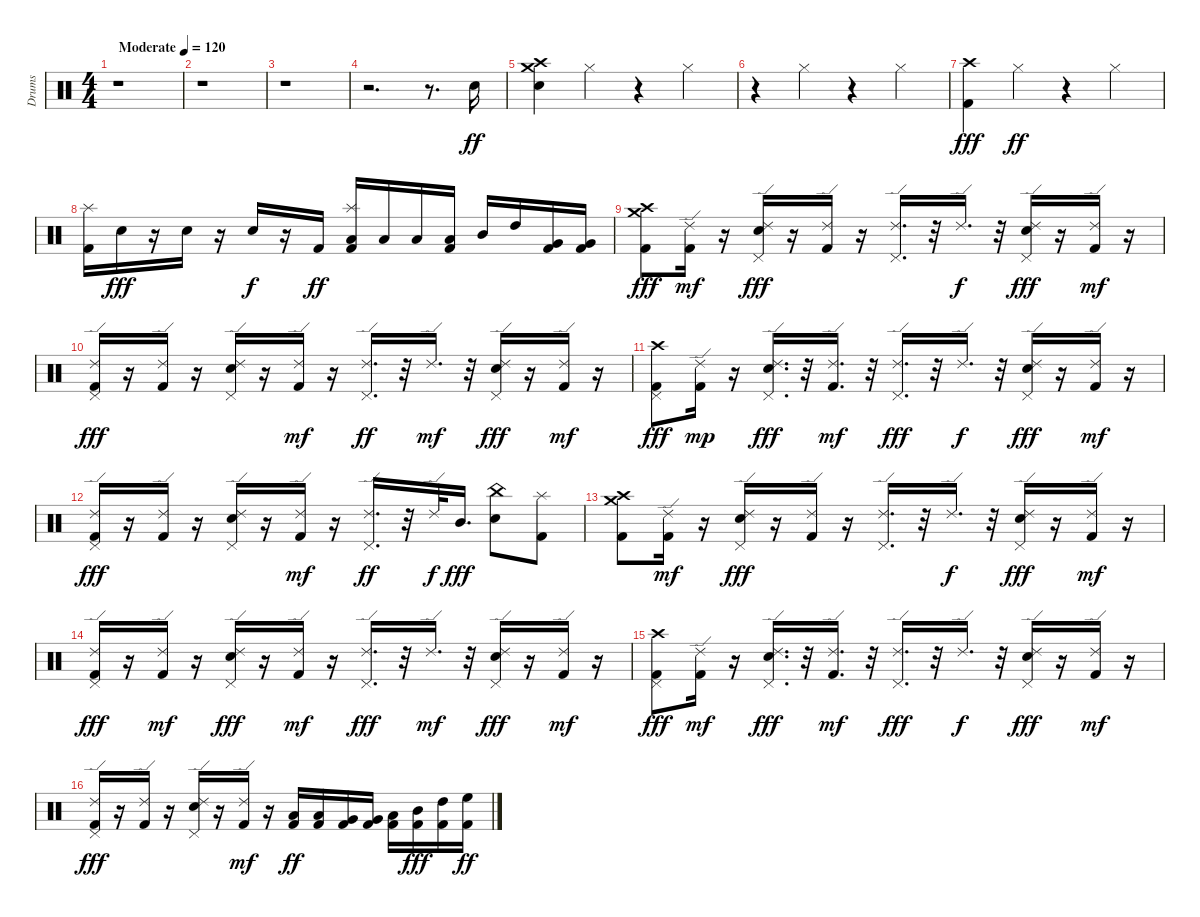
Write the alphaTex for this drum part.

\track ("Drums" "Drums") {instrument percussion}
\staff {score}
\articulation defaults
\ts (4 4)
\tempo (120 "Moderate")
\clef neutral
\ks c
r.1{dy ff} |
r.1 |
r.1 |
r.2{d} r.8{d} "Snare (hit) 2".16 |
("Crash medium (hit)" "Snare (hit) 2" "Crash high (hit)").4 "Hi-Hat (closed)".4 r.4 "Hi-Hat (closed)".4 |
r.4 "Hi-Hat (closed)".4 r.4 "Hi-Hat (closed)".4 |
("Kick (hit) 2" "Crash high (hit)").4{dy fff} "Hi-Hat (closed)".4{dy ff} r.4 "Hi-Hat (closed)".4 |
("Kick (hit) 2" "Splash (hit)").16 "Snare (hit) 2".16{dy fff} r.16 "Snare (hit) 2".16 r.16 "Snare (hit) 2".16{dy f} r.16 "Kick (hit) 2".16{dy ff} ("Low Tom (hit)" "Splash (hit)" "Kick (hit) 2").16 "Low Tom (hit)".16 "Low Tom (hit)".16 ("Kick (hit) 2" "Low Tom (hit)").16 "Mid Tom (hit)".16 "High Tom (hit)".16 ("Kick (hit) 2" "Very Low Tom (hit)").16 ("Kick (hit) 2" "Very Low Tom (hit)").16 |
("Crash medium (hit)" "Kick (hit) 2" "Crash high (hit)").8{dy fff} ("Kick (hit) 2" "Ride (edge) 2").16{dy mf} r.16 ("Ride (edge) 2" "Pedal Hi-Hat (hit)" "Snare (hit) 2").16{dy fff} r.16 ("Kick (hit) 2" "Ride (edge) 2").16 r.16 ("Pedal Hi-Hat (hit)" "Ride (edge) 2").16{d} r.32 "Ride (edge) 2".16{d dy f} r.32 ("Pedal Hi-Hat (hit)" "Snare (hit) 2" "Ride (edge) 2").16{dy fff} r.16 ("Kick (hit) 2" "Ride (edge) 2").16{dy mf} r.16 |
("Ride (edge) 2" "Pedal Hi-Hat (hit)" "Kick (hit) 2").16{dy fff} r.16 ("Ride (edge) 2" "Kick (hit) 2").16 r.16 ("Snare (hit) 2" "Pedal Hi-Hat (hit)" "Ride (edge) 2").16 r.16 ("Kick (hit) 2" "Ride (edge) 2").16{dy mf} r.16 ("Pedal Hi-Hat (hit)" "Ride (edge) 2").16{d dy ff} r.32 "Ride (edge) 2".16{d dy mf} r.32 ("Pedal Hi-Hat (hit)" "Snare (hit) 2" "Ride (edge) 2").16{dy fff} r.16 ("Kick (hit) 2" "Ride (edge) 2").16{dy mf} r.16 |
("Pedal Hi-Hat (hit)" "Crash high (hit)" "Kick (hit) 2").8{dy fff} ("Kick (hit) 2" "Ride (edge) 2").16{dy mp} r.16 ("Snare (hit) 2" "Ride (edge) 2" "Pedal Hi-Hat (hit)").16{d dy fff} r.32 ("Kick (hit) 2" "Ride (edge) 2").16{d dy mf} r.32 ("Pedal Hi-Hat (hit)" "Ride (edge) 2").16{d dy fff} r.32 "Ride (edge) 2".16{d dy f} r.32 ("Pedal Hi-Hat (hit)" "Snare (hit) 2" "Ride (edge) 2").16{dy fff} r.16 ("Kick (hit) 2" "Ride (edge) 2").16{dy mf} r.16 |
("Ride (edge) 2" "Pedal Hi-Hat (hit)" "Kick (hit) 2").16{dy fff} r.16 ("Ride (edge) 2" "Kick (hit) 2").16 r.16 ("Snare (hit) 2" "Pedal Hi-Hat (hit)" "Ride (edge) 2").16 r.16 ("Kick (hit) 2" "Ride (edge) 2").16{dy mf} r.16 ("Pedal Hi-Hat (hit)" "Ride (edge) 2").16{d dy ff} r.32 "Ride (edge) 2".32{dy f} "Mid Tom (hit)".16{d dy fff} ("China (hit)" "Snare (hit) 2").8 ("Splash (hit)" "Kick (hit) 2").8 |
("Crash high (hit)" "Kick (hit) 2" "Crash medium (hit)").8 ("Kick (hit) 2" "Ride (edge) 2").16{dy mf} r.16 ("Snare (hit) 2" "Pedal Hi-Hat (hit)" "Ride (edge) 2").16{dy fff} r.16 ("Kick (hit) 2" "Ride (edge) 2").16 r.16 ("Pedal Hi-Hat (hit)" "Ride (edge) 2").16{d} r.32 "Ride (edge) 2".16{d dy f} r.32 ("Pedal Hi-Hat (hit)" "Ride (edge) 2" "Snare (hit) 2").16{dy fff} r.16 ("Kick (hit) 2" "Ride (edge) 2").16{dy mf} r.16 |
("Ride (edge) 2" "Kick (hit) 2" "Pedal Hi-Hat (hit)").16{dy fff} r.16 ("Kick (hit) 2" "Ride (edge) 2").16{dy mf} r.16 ("Ride (edge) 2" "Pedal Hi-Hat (hit)" "Snare (hit) 2").16{dy fff} r.16 ("Kick (hit) 2" "Ride (edge) 2").16{dy mf} r.16 ("Pedal Hi-Hat (hit)" "Ride (edge) 2").16{d dy fff} r.32 "Ride (edge) 2".16{d dy mf} r.32 ("Pedal Hi-Hat (hit)" "Ride (edge) 2" "Snare (hit) 2").16{dy fff} r.16 ("Kick (hit) 2" "Ride (edge) 2").16{dy mf} r.16 |
("Kick (hit) 2" "Crash high (hit)" "Pedal Hi-Hat (hit)").8{dy fff} ("Kick (hit) 2" "Ride (edge) 2").16{dy mf} r.16 ("Pedal Hi-Hat (hit)" "Ride (edge) 2" "Snare (hit) 2").16{d dy fff} r.32 ("Kick (hit) 2" "Ride (edge) 2").16{d dy mf} r.32 ("Pedal Hi-Hat (hit)" "Ride (edge) 2").16{d dy fff} r.32 "Ride (edge) 2".16{d dy f} r.32 ("Pedal Hi-Hat (hit)" "Ride (edge) 2" "Snare (hit) 2").16{dy fff} r.16 ("Kick (hit) 2" "Ride (edge) 2").16{dy mf} r.16 |
("Ride (edge) 2" "Kick (hit) 2" "Pedal Hi-Hat (hit)").16{dy fff} r.16 ("Kick (hit) 2" "Ride (edge) 2").16 r.16 ("Ride (edge) 2" "Pedal Hi-Hat (hit)" "Snare (hit) 2").16 r.16 ("Kick (hit) 2" "Ride (edge) 2").16{dy mf} r.16 ("Kick (hit) 2" "Low Floor Tom (hit)").16{dy ff} ("Kick (hit) 2" "Low Floor Tom (hit)").16 ("Very Low Tom (hit)" "Kick (hit) 2").16 ("Kick (hit) 2" "Very Low Tom (hit)").16 ("Kick (hit) 2" "Low Tom (hit)").16 ("Mid Tom (hit)" "Kick (hit) 2").16{dy fff} ("Kick (hit) 2" "High Tom (hit)").16 ("High Floor Tom (hit)" "Kick (hit) 2").16{dy ff}
